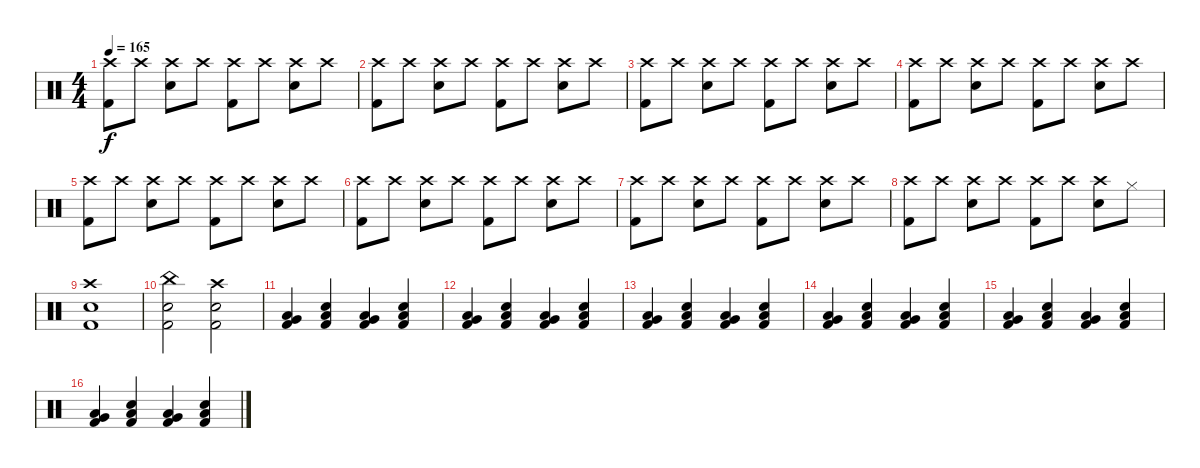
\track "" {instrument percussion}
\staff {score}
\articulation defaults
\ts (4 4)
\tempo 165
\clef neutral
\ks c
("Crash high (hit)" "Kick (hit) 2").8{dy f} "Crash high (hit)".8 ("Crash high (hit)" "Electric Snare (hit)").8 "Crash high (hit)".8 ("Crash high (hit)" "Kick (hit) 2").8 "Crash high (hit)".8 ("Crash high (hit)" "Electric Snare (hit)").8 "Crash high (hit)".8 |
("Crash high (hit)" "Kick (hit) 2").8 "Crash high (hit)".8 ("Crash high (hit)" "Electric Snare (hit)").8 "Crash high (hit)".8 ("Crash high (hit)" "Kick (hit) 2").8 "Crash high (hit)".8 ("Crash high (hit)" "Electric Snare (hit)").8 "Crash high (hit)".8 |
("Crash high (hit)" "Kick (hit) 2").8 "Crash high (hit)".8 ("Crash high (hit)" "Electric Snare (hit)").8 "Crash high (hit)".8 ("Crash high (hit)" "Kick (hit) 2").8 "Crash high (hit)".8 ("Crash high (hit)" "Electric Snare (hit)").8 "Crash high (hit)".8 |
("Crash high (hit)" "Kick (hit) 2").8 "Crash high (hit)".8 ("Crash high (hit)" "Electric Snare (hit)").8 "Crash high (hit)".8 ("Crash high (hit)" "Kick (hit) 2").8 "Crash high (hit)".8 ("Crash high (hit)" "Electric Snare (hit)").8 "Crash high (hit)".8 |
("Crash high (hit)" "Kick (hit) 2").8 "Crash high (hit)".8 ("Crash high (hit)" "Electric Snare (hit)").8 "Crash high (hit)".8 ("Crash high (hit)" "Kick (hit) 2").8 "Crash high (hit)".8 ("Crash high (hit)" "Electric Snare (hit)").8 "Crash high (hit)".8 |
("Crash high (hit)" "Kick (hit) 2").8 "Crash high (hit)".8 ("Crash high (hit)" "Electric Snare (hit)").8 "Crash high (hit)".8 ("Crash high (hit)" "Kick (hit) 2").8 "Crash high (hit)".8 ("Crash high (hit)" "Electric Snare (hit)").8 "Crash high (hit)".8 |
("Crash high (hit)" "Kick (hit) 2").8 "Crash high (hit)".8 ("Crash high (hit)" "Electric Snare (hit)").8 "Crash high (hit)".8 ("Crash high (hit)" "Kick (hit) 2").8 "Crash high (hit)".8 ("Crash high (hit)" "Electric Snare (hit)").8 "Crash high (hit)".8 |
("Crash high (hit)" "Kick (hit) 2").8 "Crash high (hit)".8 ("Crash high (hit)" "Electric Snare (hit)").8 "Crash high (hit)".8 ("Crash high (hit)" "Kick (hit) 2").8 "Crash high (hit)".8 ("Crash high (hit)" "Electric Snare (hit)").8 "Hi-Hat (closed)".8 |
("Crash high (hit)" "Electric Snare (hit)" "Kick (hit) 2").1 |
("China (hit)" "Electric Snare (hit)" "Kick (hit) 2").2 ("Crash high (hit)" "Electric Snare (hit)" "Kick (hit) 2").2 |
("Low Tom (hit)" "Very Low Tom (hit)" "Kick (hit) 2").4 ("Low Tom (hit)" "Electric Snare (hit)" "Kick (hit) 2").4 ("Low Tom (hit)" "Very Low Tom (hit)" "Kick (hit) 2").4 ("Low Tom (hit)" "Electric Snare (hit)" "Kick (hit) 2").4 |
("Low Tom (hit)" "Very Low Tom (hit)" "Kick (hit) 2").4 ("Low Tom (hit)" "Electric Snare (hit)" "Kick (hit) 2").4 ("Low Tom (hit)" "Very Low Tom (hit)" "Kick (hit) 2").4 ("Low Tom (hit)" "Electric Snare (hit)" "Kick (hit) 2").4 |
("Low Tom (hit)" "Very Low Tom (hit)" "Kick (hit) 2").4 ("Low Tom (hit)" "Electric Snare (hit)" "Kick (hit) 2").4 ("Low Tom (hit)" "Very Low Tom (hit)" "Kick (hit) 2").4 ("Low Tom (hit)" "Electric Snare (hit)" "Kick (hit) 2").4 |
("Low Tom (hit)" "Very Low Tom (hit)" "Kick (hit) 2").4 ("Low Tom (hit)" "Electric Snare (hit)" "Kick (hit) 2").4 ("Low Tom (hit)" "Very Low Tom (hit)" "Kick (hit) 2").4 ("Low Tom (hit)" "Electric Snare (hit)" "Kick (hit) 2").4 |
("Low Tom (hit)" "Very Low Tom (hit)" "Kick (hit) 2").4 ("Low Tom (hit)" "Electric Snare (hit)" "Kick (hit) 2").4 ("Low Tom (hit)" "Very Low Tom (hit)" "Kick (hit) 2").4 ("Low Tom (hit)" "Electric Snare (hit)" "Kick (hit) 2").4 |
("Low Tom (hit)" "Very Low Tom (hit)" "Kick (hit) 2").4 ("Low Tom (hit)" "Electric Snare (hit)" "Kick (hit) 2").4 ("Low Tom (hit)" "Very Low Tom (hit)" "Kick (hit) 2").4 ("Low Tom (hit)" "Electric Snare (hit)" "Kick (hit) 2").4
